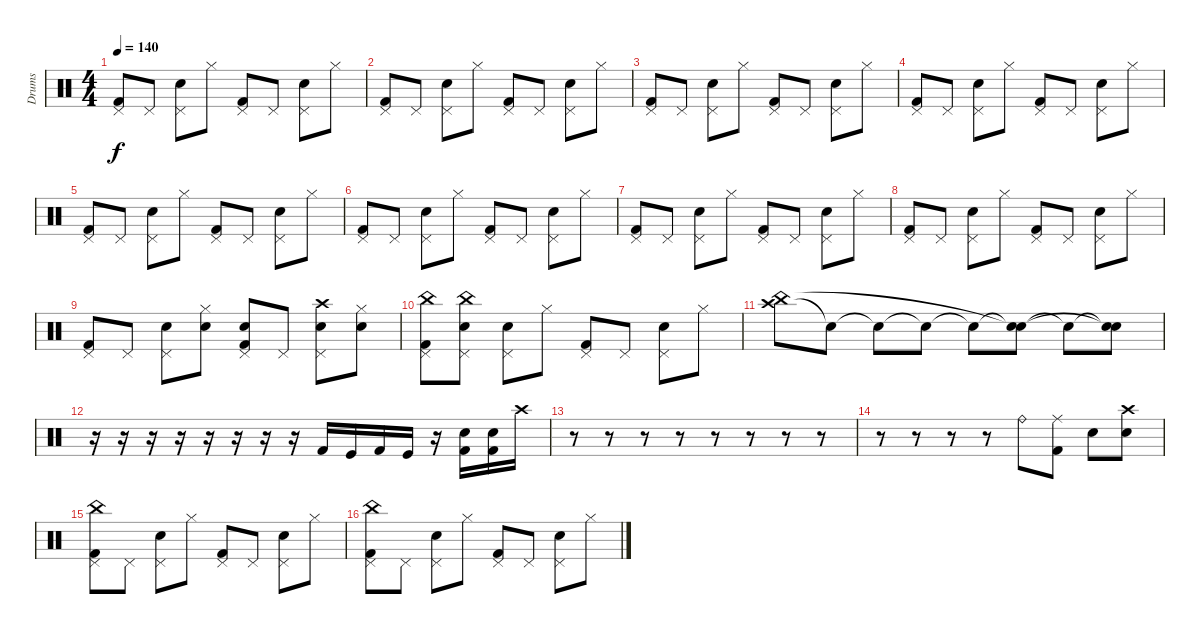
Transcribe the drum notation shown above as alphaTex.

\track ("Drums" "Drums") {instrument percussion}
\staff {score}
\articulation defaults
\ts (4 4)
\tempo 140
\clef neutral
\ks c
("Kick (hit) 2" "Pedal Hi-Hat (hit)").8{dy f} "Pedal Hi-Hat (hit)".8 ("Snare (hit) 2" "Pedal Hi-Hat (hit)").8 "Hi-Hat (closed)".8 ("Kick (hit) 2" "Pedal Hi-Hat (hit)").8 "Pedal Hi-Hat (hit)".8 ("Snare (hit) 2" "Pedal Hi-Hat (hit)").8 "Hi-Hat (closed)".8 |
("Kick (hit) 2" "Pedal Hi-Hat (hit)").8 "Pedal Hi-Hat (hit)".8 ("Snare (hit) 2" "Pedal Hi-Hat (hit)").8 "Hi-Hat (closed)".8 ("Kick (hit) 2" "Pedal Hi-Hat (hit)").8 "Pedal Hi-Hat (hit)".8 ("Snare (hit) 2" "Pedal Hi-Hat (hit)").8 "Hi-Hat (closed)".8 |
("Kick (hit) 2" "Pedal Hi-Hat (hit)").8 "Pedal Hi-Hat (hit)".8 ("Snare (hit) 2" "Pedal Hi-Hat (hit)").8 "Hi-Hat (closed)".8 ("Kick (hit) 2" "Pedal Hi-Hat (hit)").8 "Pedal Hi-Hat (hit)".8 ("Snare (hit) 2" "Pedal Hi-Hat (hit)").8 "Hi-Hat (closed)".8 |
("Kick (hit) 2" "Pedal Hi-Hat (hit)").8 "Pedal Hi-Hat (hit)".8 ("Snare (hit) 2" "Pedal Hi-Hat (hit)").8 "Hi-Hat (closed)".8 ("Kick (hit) 2" "Pedal Hi-Hat (hit)").8 "Pedal Hi-Hat (hit)".8 ("Snare (hit) 2" "Pedal Hi-Hat (hit)").8 "Hi-Hat (closed)".8 |
("Kick (hit) 2" "Pedal Hi-Hat (hit)").8 "Pedal Hi-Hat (hit)".8 ("Snare (hit) 2" "Pedal Hi-Hat (hit)").8 "Hi-Hat (closed)".8 ("Kick (hit) 2" "Pedal Hi-Hat (hit)").8 "Pedal Hi-Hat (hit)".8 ("Snare (hit) 2" "Pedal Hi-Hat (hit)").8 "Hi-Hat (closed)".8 |
("Kick (hit) 2" "Pedal Hi-Hat (hit)").8 "Pedal Hi-Hat (hit)".8 ("Snare (hit) 2" "Pedal Hi-Hat (hit)").8 "Hi-Hat (closed)".8 ("Kick (hit) 2" "Pedal Hi-Hat (hit)").8 "Pedal Hi-Hat (hit)".8 ("Snare (hit) 2" "Pedal Hi-Hat (hit)").8 "Hi-Hat (closed)".8 |
("Kick (hit) 2" "Pedal Hi-Hat (hit)").8 "Pedal Hi-Hat (hit)".8 ("Snare (hit) 2" "Pedal Hi-Hat (hit)").8 "Hi-Hat (closed)".8 ("Kick (hit) 2" "Pedal Hi-Hat (hit)").8 "Pedal Hi-Hat (hit)".8 ("Snare (hit) 2" "Pedal Hi-Hat (hit)").8 "Hi-Hat (closed)".8 |
("Kick (hit) 2" "Pedal Hi-Hat (hit)").8 "Pedal Hi-Hat (hit)".8 ("Snare (hit) 2" "Pedal Hi-Hat (hit)").8 "Hi-Hat (closed)".8 ("Kick (hit) 2" "Pedal Hi-Hat (hit)").8 "Pedal Hi-Hat (hit)".8 ("Snare (hit) 2" "Pedal Hi-Hat (hit)").8 "Hi-Hat (closed)".8 |
("Kick (hit) 2" "Pedal Hi-Hat (hit)").8 "Pedal Hi-Hat (hit)".8 ("Snare (hit) 2" "Pedal Hi-Hat (hit)").8 ("Snare (hit) 2" "Hi-Hat (closed)").8 ("Kick (hit) 2" "Snare (hit) 2" "Pedal Hi-Hat (hit)").8 "Pedal Hi-Hat (hit)".8 ("Snare (hit) 2" "Crash high (hit)" "Pedal Hi-Hat (hit)").8 ("Snare (hit) 2" "Hi-Hat (closed)").8 |
("Kick (hit) 2" "China (hit)" "Pedal Hi-Hat (hit)").8 ("Snare (hit) 2" "China (hit)" "Pedal Hi-Hat (hit)").8 ("Snare (hit) 2" "Pedal Hi-Hat (hit)").8 "Hi-Hat (closed)".8 ("Kick (hit) 2" "Pedal Hi-Hat (hit)").8 "Pedal Hi-Hat (hit)".8 ("Snare (hit) 2" "Pedal Hi-Hat (hit)").8 "Hi-Hat (closed)".8 |
("Crash high (hit)" "China (hit)").8 "Snare (hit)"{t}.8 "Snare (hit)"{t}.8 "Snare (hit)"{t}.8 "Snare (hit)"{t}.8 ("Snare (hit)"{t} "Snare (hit)"{t}).8 "Snare (hit)"{t}.8 ("Snare (hit)"{t} "Snare (hit)"{t}).8 |
r.16 r.16 r.16 r.16 r.16 r.16 r.16 r.16 "Kick (hit) 2".16 "Kick (hit)".16 "Kick (hit) 2".16 "Kick (hit)".16 r.16 ("Kick (hit) 2" "Snare (hit) 2").16 ("Kick (hit) 2" "Snare (hit) 2").16 "Crash high (hit)".16 |
r.8 r.8 r.8 r.8 r.8 r.8 r.8 r.8 |
r.8 r.8 r.8 r.8 "Ride (bell)".8 ("Ride (middle)" "Kick (hit) 2").8 "Snare (hit) 2".8 ("Snare (hit) 2" "Crash high (hit)").8 |
("Kick (hit) 2" "China (hit)" "Pedal Hi-Hat (hit)").8 "Pedal Hi-Hat (hit)".8 ("Snare (hit) 2" "Pedal Hi-Hat (hit)").8 "Hi-Hat (closed)".8 ("Kick (hit) 2" "Pedal Hi-Hat (hit)").8 "Pedal Hi-Hat (hit)".8 ("Snare (hit) 2" "Pedal Hi-Hat (hit)").8 "Hi-Hat (closed)".8 |
("Kick (hit) 2" "China (hit)" "Pedal Hi-Hat (hit)").8 "Pedal Hi-Hat (hit)".8 ("Snare (hit) 2" "Pedal Hi-Hat (hit)").8 "Hi-Hat (closed)".8 ("Kick (hit) 2" "Pedal Hi-Hat (hit)").8 "Pedal Hi-Hat (hit)".8 ("Snare (hit) 2" "Pedal Hi-Hat (hit)").8 "Hi-Hat (closed)".8
